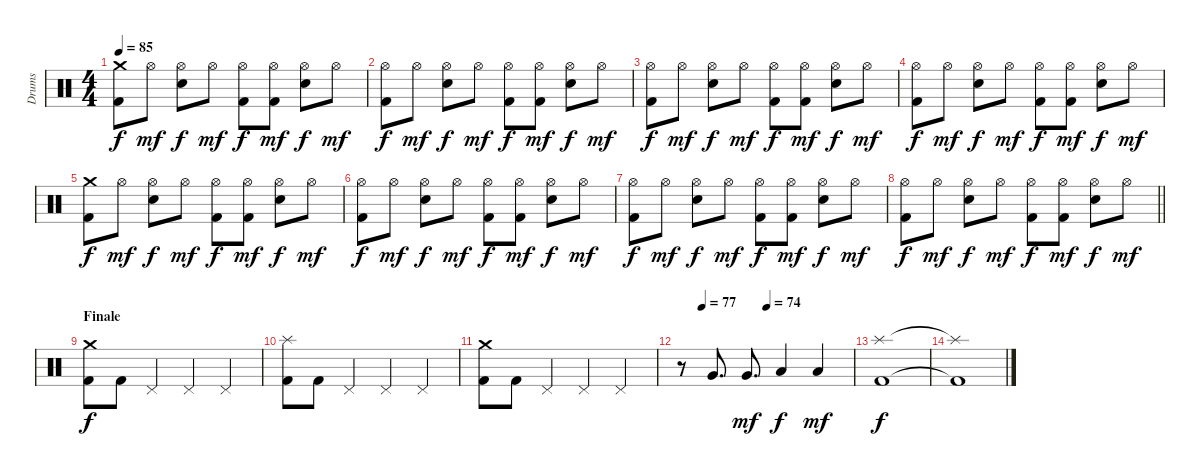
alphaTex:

\track ("Drums" "Drums") {instrument percussion}
\staff {score}
\articulation defaults
\ts (4 4)
\tempo 85
\clef neutral
\ks c
("Crash medium (hit)" "Kick (hit) 2").8{dy f} "Hi-Hat (open)".8{dy mf} ("Hi-Hat (open)" "Snare (hit) 2").8{dy f} "Hi-Hat (open)".8{dy mf} ("Hi-Hat (open)" "Kick (hit) 2").8{dy f} ("Hi-Hat (open)" "Kick (hit) 2").8{dy mf} ("Hi-Hat (open)" "Snare (hit) 2").8{dy f} "Hi-Hat (open)".8{dy mf} |
("Hi-Hat (open)" "Kick (hit) 2").8{dy f} "Hi-Hat (open)".8{dy mf} ("Hi-Hat (open)" "Snare (hit) 2").8{dy f} "Hi-Hat (open)".8{dy mf} ("Hi-Hat (open)" "Kick (hit) 2").8{dy f} ("Hi-Hat (open)" "Kick (hit) 2").8{dy mf} ("Hi-Hat (open)" "Snare (hit) 2").8{dy f} "Hi-Hat (open)".8{dy mf} |
("Hi-Hat (open)" "Kick (hit) 2").8{dy f} "Hi-Hat (open)".8{dy mf} ("Hi-Hat (open)" "Snare (hit) 2").8{dy f} "Hi-Hat (open)".8{dy mf} ("Hi-Hat (open)" "Kick (hit) 2").8{dy f} ("Hi-Hat (open)" "Kick (hit) 2").8{dy mf} ("Hi-Hat (open)" "Snare (hit) 2").8{dy f} "Hi-Hat (open)".8{dy mf} |
("Hi-Hat (open)" "Kick (hit) 2").8{dy f} "Hi-Hat (open)".8{dy mf} ("Hi-Hat (open)" "Snare (hit) 2").8{dy f} "Hi-Hat (open)".8{dy mf} ("Hi-Hat (open)" "Kick (hit) 2").8{dy f} ("Hi-Hat (open)" "Kick (hit) 2").8{dy mf} ("Hi-Hat (open)" "Snare (hit) 2").8{dy f} "Hi-Hat (open)".8{dy mf} |
("Crash medium (hit)" "Kick (hit) 2").8{dy f} "Hi-Hat (open)".8{dy mf} ("Hi-Hat (open)" "Snare (hit) 2").8{dy f} "Hi-Hat (open)".8{dy mf} ("Hi-Hat (open)" "Kick (hit) 2").8{dy f} ("Hi-Hat (open)" "Kick (hit) 2").8{dy mf} ("Hi-Hat (open)" "Snare (hit) 2").8{dy f} "Hi-Hat (open)".8{dy mf} |
("Hi-Hat (open)" "Kick (hit) 2").8{dy f} "Hi-Hat (open)".8{dy mf} ("Hi-Hat (open)" "Snare (hit) 2").8{dy f} "Hi-Hat (open)".8{dy mf} ("Hi-Hat (open)" "Kick (hit) 2").8{dy f} ("Hi-Hat (open)" "Kick (hit) 2").8{dy mf} ("Hi-Hat (open)" "Snare (hit) 2").8{dy f} "Hi-Hat (open)".8{dy mf} |
("Hi-Hat (open)" "Kick (hit) 2").8{dy f} "Hi-Hat (open)".8{dy mf} ("Hi-Hat (open)" "Snare (hit) 2").8{dy f} "Hi-Hat (open)".8{dy mf} ("Hi-Hat (open)" "Kick (hit) 2").8{dy f} ("Hi-Hat (open)" "Kick (hit) 2").8{dy mf} ("Hi-Hat (open)" "Snare (hit) 2").8{dy f} "Hi-Hat (open)".8{dy mf} |
\barLineRight lightlight
("Hi-Hat (open)" "Kick (hit) 2").8{dy f} "Hi-Hat (open)".8{dy mf} ("Hi-Hat (open)" "Snare (hit) 2").8{dy f} "Hi-Hat (open)".8{dy mf} ("Hi-Hat (open)" "Kick (hit) 2").8{dy f} ("Hi-Hat (open)" "Kick (hit) 2").8{dy mf} ("Hi-Hat (open)" "Snare (hit) 2").8{dy f} "Hi-Hat (open)".8{dy mf} |
\section ("" "Finale")
("Crash medium (hit)" "Kick (hit) 2").8{dy f} "Kick (hit) 2".8 "Pedal Hi-Hat (hit)".4 "Pedal Hi-Hat (hit)".4 "Pedal Hi-Hat (hit)".4 |
("Splash (hit)" "Kick (hit) 2").8 "Kick (hit) 2".8 "Pedal Hi-Hat (hit)".4 "Pedal Hi-Hat (hit)".4 "Pedal Hi-Hat (hit)".4 |
("Crash medium (hit)" "Kick (hit) 2").8 "Kick (hit) 2".8 "Pedal Hi-Hat (hit)".4 "Pedal Hi-Hat (hit)".4 "Pedal Hi-Hat (hit)".4 |
\tempo (77 0.125)
\tempo (74 0.5)
r.8 "Very Low Tom (hit)".8{d} "Very Low Tom (hit)".8{d dy mf} "Low Floor Tom (hit)".4{dy f} "Low Floor Tom (hit)".4{dy mf} |
("Splash (hit)" "Kick (hit) 2").1{dy f} |
("Splash (hit)"{t} "Kick (hit) 2"{t}).1
